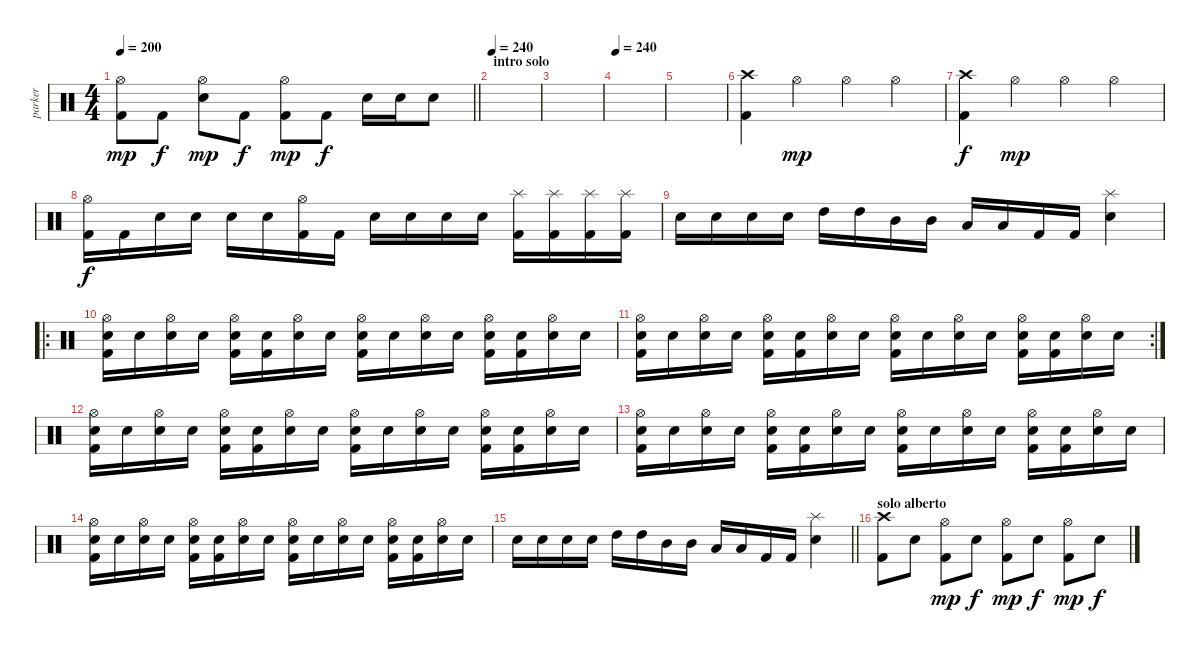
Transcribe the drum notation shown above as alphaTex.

\track ("parker" "parker") {instrument percussion}
\staff {score}
\articulation defaults
\ts (4 4)
\tempo 200
\clef neutral
\barLineRight lightlight
\ks c
("Hi-Hat (open)" "Kick (hit) 2").8{dy mp} "Kick (hit) 2".8{dy f} ("Hi-Hat (open)" "Electric Snare (hit)").8{dy mp} "Kick (hit) 2".8{dy f} ("Hi-Hat (open)" "Kick (hit) 2").8{dy mp} "Kick (hit) 2".8{dy f} "Electric Snare (hit)".16 "Electric Snare (hit)".16 "Electric Snare (hit)".8 |
\section ("" "intro solo")
\tempo 240
|
|
\tempo 240
|
|
("Crash high (hit)" "Kick (hit) 2").4 "Hi-Hat (open)".4{dy mp} "Hi-Hat (open)".4 "Hi-Hat (open)".4 |
("Crash high (hit)" "Kick (hit) 2").4{dy f} "Hi-Hat (open)".4{dy mp} "Hi-Hat (open)".4 "Hi-Hat (open)".4 |
("Hi-Hat (open)" "Kick (hit) 2").16{dy f} "Kick (hit) 2".16 "Electric Snare (hit)".16 "Electric Snare (hit)".16 "Electric Snare (hit)".16 "Electric Snare (hit)".16 ("Hi-Hat (open)" "Kick (hit) 2").16 "Kick (hit) 2".16 "Electric Snare (hit)".16 "Electric Snare (hit)".16 "Electric Snare (hit)".16 "Electric Snare (hit)".16 ("Splash (hit)" "Kick (hit) 2").16 ("Splash (hit)" "Kick (hit) 2").16 ("Splash (hit)" "Kick (hit) 2").16 ("Splash (hit)" "Kick (hit) 2").16 |
"Electric Snare (hit)".16 "Electric Snare (hit)".16 "Electric Snare (hit)".16 "Electric Snare (hit)".16 "High Tom (hit)".16 "High Tom (hit)".16 "Mid Tom (hit)".16 "Mid Tom (hit)".16 "Low Tom (hit)".16 "Low Tom (hit)".16 "Kick (hit) 2".16 "Kick (hit) 2".16 ("Splash (hit)" "Electric Snare (hit)").4 |
\ro
("Hi-Hat (open)" "Kick (hit) 2" "Snare (hit)").16 "Snare (hit)".16 ("Hi-Hat (open)" "Electric Snare (hit)").16 "Snare (hit)".16 ("Hi-Hat (open)" "Kick (hit) 2" "Snare (hit)").16 ("Kick (hit) 2" "Snare (hit)").16 ("Hi-Hat (open)" "Electric Snare (hit)").16 "Snare (hit)".16 ("Hi-Hat (open)" "Kick (hit) 2" "Snare (hit)").16 "Snare (hit)".16 ("Hi-Hat (open)" "Electric Snare (hit)").16 "Snare (hit)".16 ("Hi-Hat (open)" "Kick (hit) 2" "Snare (hit)").16 ("Kick (hit) 2" "Snare (hit)").16 ("Hi-Hat (open)" "Electric Snare (hit)").16 "Snare (hit)".16 |
\rc 2
("Hi-Hat (open)" "Kick (hit) 2" "Snare (hit)").16 "Snare (hit)".16 ("Hi-Hat (open)" "Electric Snare (hit)").16 "Snare (hit)".16 ("Hi-Hat (open)" "Kick (hit) 2" "Snare (hit)").16 ("Kick (hit) 2" "Snare (hit)").16 ("Hi-Hat (open)" "Electric Snare (hit)").16 "Snare (hit)".16 ("Hi-Hat (open)" "Kick (hit) 2" "Snare (hit)").16 "Snare (hit)".16 ("Hi-Hat (open)" "Electric Snare (hit)").16 "Snare (hit)".16 ("Hi-Hat (open)" "Kick (hit) 2" "Snare (hit)").16 ("Kick (hit) 2" "Snare (hit)").16 ("Hi-Hat (open)" "Electric Snare (hit)").16 "Snare (hit)".16 |
("Hi-Hat (open)" "Kick (hit) 2" "Snare (hit)").16 "Snare (hit)".16 ("Hi-Hat (open)" "Electric Snare (hit)").16 "Snare (hit)".16 ("Hi-Hat (open)" "Kick (hit) 2" "Snare (hit)").16 ("Kick (hit) 2" "Snare (hit)").16 ("Hi-Hat (open)" "Electric Snare (hit)").16 "Snare (hit)".16 ("Hi-Hat (open)" "Kick (hit) 2" "Snare (hit)").16 "Snare (hit)".16 ("Hi-Hat (open)" "Electric Snare (hit)").16 "Snare (hit)".16 ("Hi-Hat (open)" "Kick (hit) 2" "Snare (hit)").16 ("Kick (hit) 2" "Snare (hit)").16 ("Hi-Hat (open)" "Electric Snare (hit)").16 "Snare (hit)".16 |
("Hi-Hat (open)" "Kick (hit) 2" "Snare (hit)").16 "Snare (hit)".16 ("Hi-Hat (open)" "Electric Snare (hit)").16 "Snare (hit)".16 ("Hi-Hat (open)" "Kick (hit) 2" "Snare (hit)").16 ("Kick (hit) 2" "Snare (hit)").16 ("Hi-Hat (open)" "Electric Snare (hit)").16 "Snare (hit)".16 ("Hi-Hat (open)" "Kick (hit) 2" "Snare (hit)").16 "Snare (hit)".16 ("Hi-Hat (open)" "Electric Snare (hit)").16 "Snare (hit)".16 ("Hi-Hat (open)" "Kick (hit) 2" "Snare (hit)").16 ("Kick (hit) 2" "Snare (hit)").16 ("Hi-Hat (open)" "Electric Snare (hit)").16 "Snare (hit)".16 |
("Hi-Hat (open)" "Kick (hit) 2" "Snare (hit)").16 "Snare (hit)".16 ("Hi-Hat (open)" "Electric Snare (hit)").16 "Snare (hit)".16 ("Hi-Hat (open)" "Kick (hit) 2" "Snare (hit)").16 ("Kick (hit) 2" "Snare (hit)").16 ("Hi-Hat (open)" "Electric Snare (hit)").16 "Snare (hit)".16 ("Hi-Hat (open)" "Kick (hit) 2" "Snare (hit)").16 "Snare (hit)".16 ("Hi-Hat (open)" "Electric Snare (hit)").16 "Snare (hit)".16 ("Hi-Hat (open)" "Kick (hit) 2" "Snare (hit)").16 ("Kick (hit) 2" "Snare (hit)").16 ("Hi-Hat (open)" "Electric Snare (hit)").16 "Snare (hit)".16 |
\barLineRight lightlight "Electric Snare (hit)".16 "Electric Snare (hit)".16 "Electric Snare (hit)".16 "Electric Snare (hit)".16 "High Tom (hit)".16 "High Tom (hit)".16 "Mid Tom (hit)".16 "Mid Tom (hit)".16 "Low Tom (hit)".16 "Low Tom (hit)".16 "Kick (hit) 2".16 "Kick (hit) 2".16
("Splash (hit)" "Electric Snare (hit)").4 |
\section ("" "solo alberto")
("Crash high (hit)" "Kick (hit) 2").8 "Electric Snare (hit)".8 ("Hi-Hat (open)" "Kick (hit) 2").8{dy mp} "Electric Snare (hit)".8{dy f} ("Hi-Hat (open)" "Kick (hit) 2").8{dy mp} "Electric Snare (hit)".8{dy f} ("Hi-Hat (open)" "Kick (hit) 2").8{dy mp} "Electric Snare (hit)".8{dy f}
